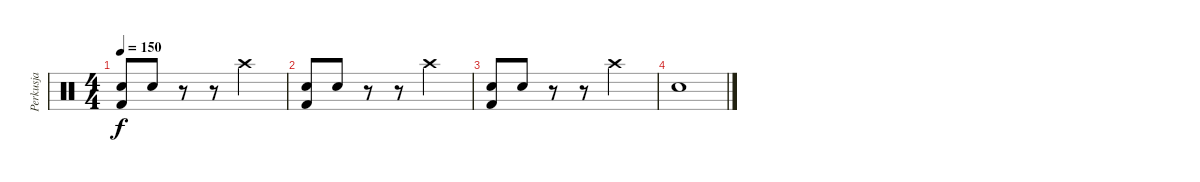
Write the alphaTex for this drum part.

\track ("Perkusja" "Perkusja") {instrument percussion}
\staff {score}
\articulation defaults
\ts (4 4)
\tempo 150
\clef neutral
\ks c
("Electric Snare (hit)" "Kick (hit) 2").8{dy f} "Electric Snare (hit)".8 r.8 r.8 "Crash high (hit)".2 |
("Electric Snare (hit)" "Kick (hit) 2").8 "Electric Snare (hit)".8 r.8 r.8 "Crash high (hit)".2 |
("Electric Snare (hit)" "Kick (hit) 2").8 "Electric Snare (hit)".8 r.8 r.8 "Crash high (hit)".2 |
"Electric Snare (hit)".1
